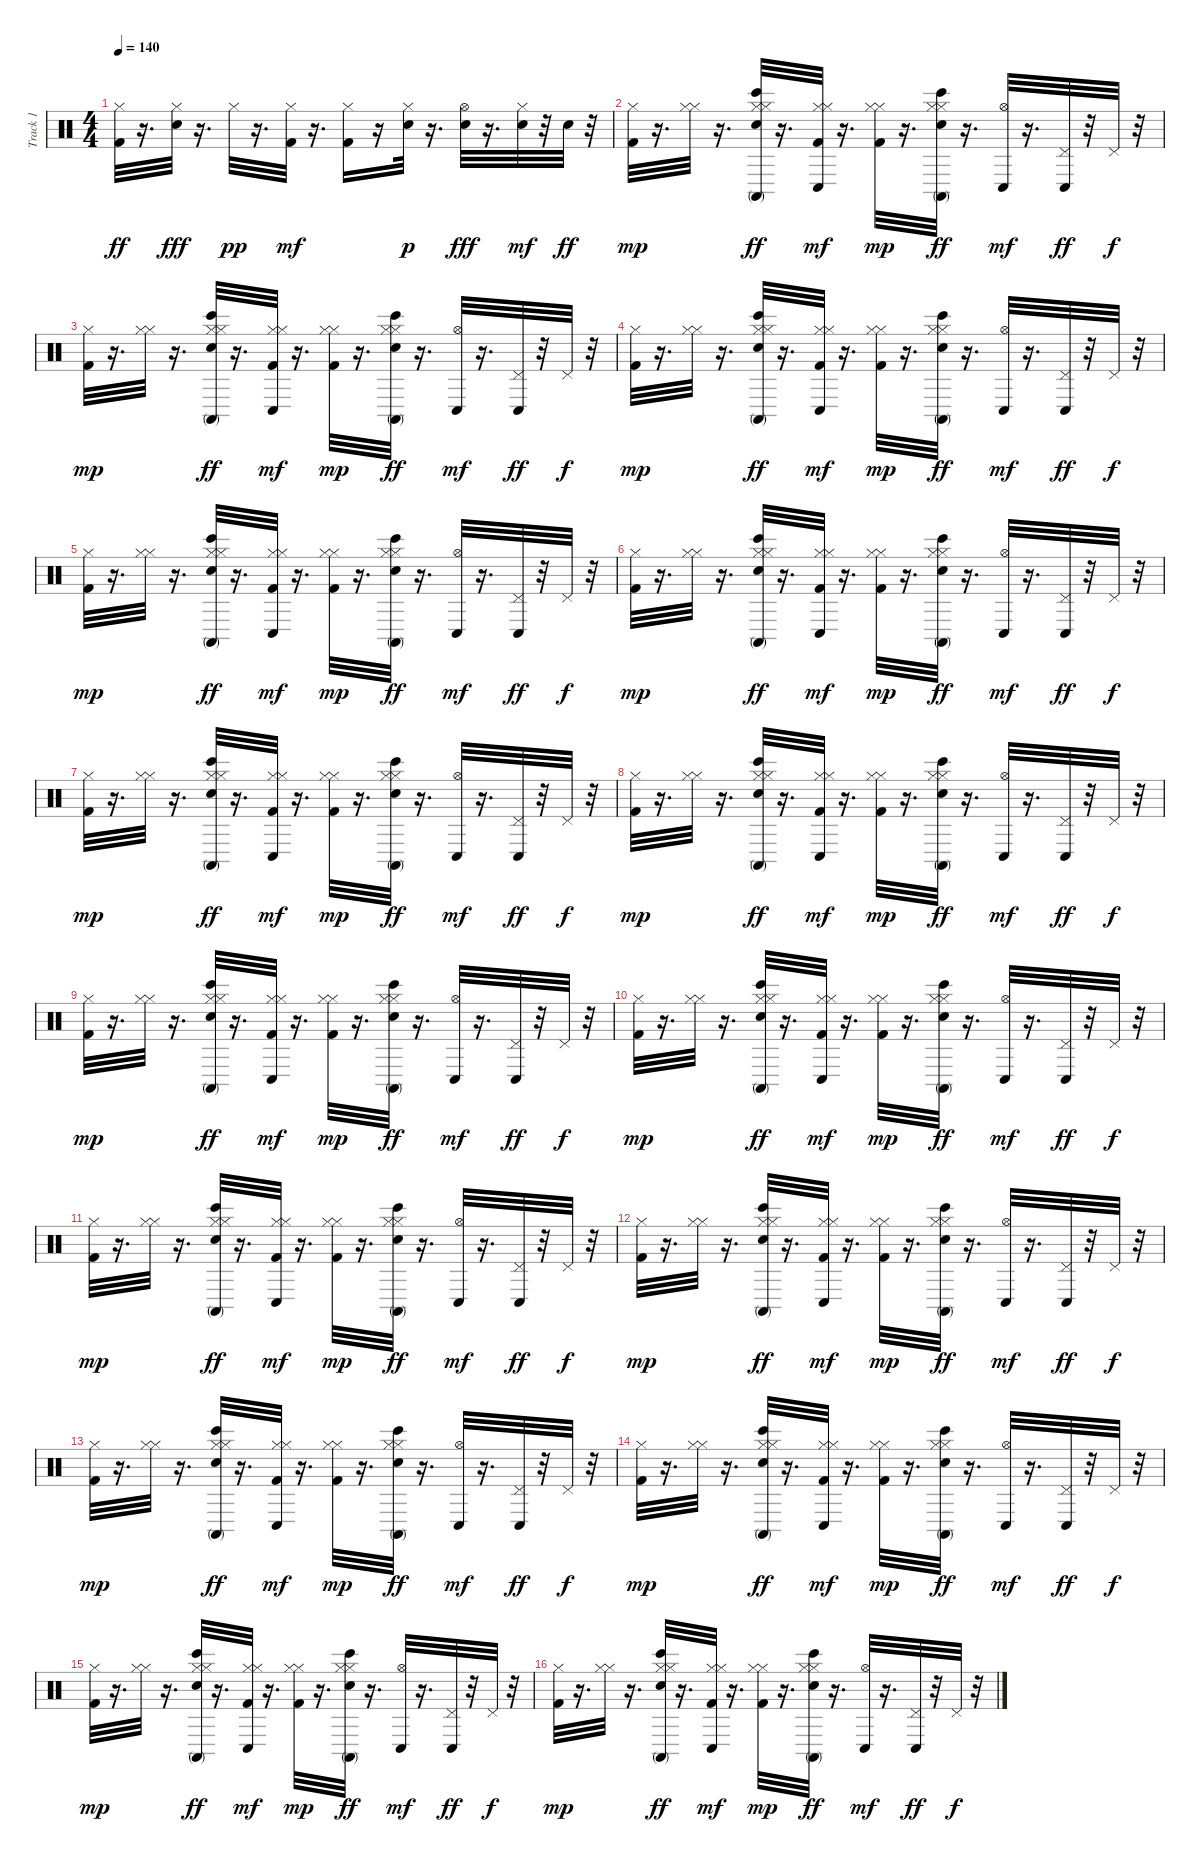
\track ("Track 1" "Track 1") {instrument percussion}
\staff {score}
\articulation defaults
\ts (4 4)
\tempo 140
\clef neutral
\ks c
("Kick (hit) 2" "Hi-Hat (closed)").32{dy ff} r.16{d} ("Hi-Hat (closed)" "Electric Snare (hit)").32{dy fff} r.16{d} "Hi-Hat (closed)".32{dy pp} r.16{d} ("Kick (hit) 2" "Hi-Hat (closed)").32{dy mf} r.16{d} ("Kick (hit) 2" "Hi-Hat (closed)").16 r.16 ("Hi-Hat (closed)" "Electric Snare (hit)").32{dy p} r.16{d} ("Hi-Hat (open)" "Electric Snare (hit)").32{dy fff} r.16{d} ("Hi-Hat (closed)" "Electric Snare (hit)").32{dy mf} r.32 "Electric Snare (hit)".32{dy ff} r.32 |
("Kick (hit) 2" "Hi-Hat (closed)").32{dy mp} r.16{d} ("Hi-Hat (closed)" "Hi-Hat (closed)").32 r.16{d} ("Electric Snare (hit)" "Hi-Hat (closed)" "Hi-Hat (closed)" "Conga high (mute)" "Bongo High (hit)").32{dy ff} r.16{d} ("Kick (hit) 2" "Hi-Hat (closed)" "Hi-Hat (closed)" "Conga low (hit)").32{dy mf} r.16{d} ("Kick (hit) 2" "Hi-Hat (closed)" "Hi-Hat (closed)").32{dy mp} r.16{d} ("Electric Snare (hit)" "Hi-Hat (closed)" "Hi-Hat (closed)" "Conga high (mute)" "Bongo High (hit)").32{dy ff} r.16{d} ("Hi-Hat (open)" "Conga low (hit)").32{dy mf} r.16{d} ("Pedal Hi-Hat (hit)" "Conga low (hit)").32{dy ff} r.32 "Pedal Hi-Hat (hit)".32{dy f} r.32 |
("Kick (hit) 2" "Hi-Hat (closed)").32{dy mp} r.16{d} ("Hi-Hat (closed)" "Hi-Hat (closed)").32 r.16{d} ("Electric Snare (hit)" "Hi-Hat (closed)" "Hi-Hat (closed)" "Conga high (mute)" "Bongo High (hit)").32{dy ff} r.16{d} ("Kick (hit) 2" "Hi-Hat (closed)" "Hi-Hat (closed)" "Conga low (hit)").32{dy mf} r.16{d} ("Kick (hit) 2" "Hi-Hat (closed)" "Hi-Hat (closed)").32{dy mp} r.16{d} ("Electric Snare (hit)" "Hi-Hat (closed)" "Hi-Hat (closed)" "Conga high (mute)" "Bongo High (hit)").32{dy ff} r.16{d} ("Hi-Hat (open)" "Conga low (hit)").32{dy mf} r.16{d} ("Pedal Hi-Hat (hit)" "Conga low (hit)").32{dy ff} r.32 "Pedal Hi-Hat (hit)".32{dy f} r.32 |
("Kick (hit) 2" "Hi-Hat (closed)").32{dy mp} r.16{d} ("Hi-Hat (closed)" "Hi-Hat (closed)").32 r.16{d} ("Electric Snare (hit)" "Hi-Hat (closed)" "Hi-Hat (closed)" "Conga high (mute)" "Bongo High (hit)").32{dy ff} r.16{d} ("Kick (hit) 2" "Hi-Hat (closed)" "Hi-Hat (closed)" "Conga low (hit)").32{dy mf} r.16{d} ("Kick (hit) 2" "Hi-Hat (closed)" "Hi-Hat (closed)").32{dy mp} r.16{d} ("Electric Snare (hit)" "Hi-Hat (closed)" "Hi-Hat (closed)" "Conga high (mute)" "Bongo High (hit)").32{dy ff} r.16{d} ("Hi-Hat (open)" "Conga low (hit)").32{dy mf} r.16{d} ("Pedal Hi-Hat (hit)" "Conga low (hit)").32{dy ff} r.32 "Pedal Hi-Hat (hit)".32{dy f} r.32 |
("Kick (hit) 2" "Hi-Hat (closed)").32{dy mp} r.16{d} ("Hi-Hat (closed)" "Hi-Hat (closed)").32 r.16{d} ("Electric Snare (hit)" "Hi-Hat (closed)" "Hi-Hat (closed)" "Conga high (mute)" "Bongo High (hit)").32{dy ff} r.16{d} ("Kick (hit) 2" "Hi-Hat (closed)" "Hi-Hat (closed)" "Conga low (hit)").32{dy mf} r.16{d} ("Kick (hit) 2" "Hi-Hat (closed)" "Hi-Hat (closed)").32{dy mp} r.16{d} ("Electric Snare (hit)" "Hi-Hat (closed)" "Hi-Hat (closed)" "Conga high (mute)" "Bongo High (hit)").32{dy ff} r.16{d} ("Hi-Hat (open)" "Conga low (hit)").32{dy mf} r.16{d} ("Pedal Hi-Hat (hit)" "Conga low (hit)").32{dy ff} r.32 "Pedal Hi-Hat (hit)".32{dy f} r.32 |
("Kick (hit) 2" "Hi-Hat (closed)").32{dy mp} r.16{d} ("Hi-Hat (closed)" "Hi-Hat (closed)").32 r.16{d} ("Electric Snare (hit)" "Hi-Hat (closed)" "Hi-Hat (closed)" "Conga high (mute)" "Bongo High (hit)").32{dy ff} r.16{d} ("Kick (hit) 2" "Hi-Hat (closed)" "Hi-Hat (closed)" "Conga low (hit)").32{dy mf} r.16{d} ("Kick (hit) 2" "Hi-Hat (closed)" "Hi-Hat (closed)").32{dy mp} r.16{d} ("Electric Snare (hit)" "Hi-Hat (closed)" "Hi-Hat (closed)" "Conga high (mute)" "Bongo High (hit)").32{dy ff} r.16{d} ("Hi-Hat (open)" "Conga low (hit)").32{dy mf} r.16{d} ("Pedal Hi-Hat (hit)" "Conga low (hit)").32{dy ff} r.32 "Pedal Hi-Hat (hit)".32{dy f} r.32 |
("Kick (hit) 2" "Hi-Hat (closed)").32{dy mp} r.16{d} ("Hi-Hat (closed)" "Hi-Hat (closed)").32 r.16{d} ("Electric Snare (hit)" "Hi-Hat (closed)" "Hi-Hat (closed)" "Conga high (mute)" "Bongo High (hit)").32{dy ff} r.16{d} ("Kick (hit) 2" "Hi-Hat (closed)" "Hi-Hat (closed)" "Conga low (hit)").32{dy mf} r.16{d} ("Kick (hit) 2" "Hi-Hat (closed)" "Hi-Hat (closed)").32{dy mp} r.16{d} ("Electric Snare (hit)" "Hi-Hat (closed)" "Hi-Hat (closed)" "Conga high (mute)" "Bongo High (hit)").32{dy ff} r.16{d} ("Hi-Hat (open)" "Conga low (hit)").32{dy mf} r.16{d} ("Pedal Hi-Hat (hit)" "Conga low (hit)").32{dy ff} r.32 "Pedal Hi-Hat (hit)".32{dy f} r.32 |
("Kick (hit) 2" "Hi-Hat (closed)").32{dy mp} r.16{d} ("Hi-Hat (closed)" "Hi-Hat (closed)").32 r.16{d} ("Electric Snare (hit)" "Hi-Hat (closed)" "Hi-Hat (closed)" "Conga high (mute)" "Bongo High (hit)").32{dy ff} r.16{d} ("Kick (hit) 2" "Hi-Hat (closed)" "Hi-Hat (closed)" "Conga low (hit)").32{dy mf} r.16{d} ("Kick (hit) 2" "Hi-Hat (closed)" "Hi-Hat (closed)").32{dy mp} r.16{d} ("Electric Snare (hit)" "Hi-Hat (closed)" "Hi-Hat (closed)" "Conga high (mute)" "Bongo High (hit)").32{dy ff} r.16{d} ("Hi-Hat (open)" "Conga low (hit)").32{dy mf} r.16{d} ("Pedal Hi-Hat (hit)" "Conga low (hit)").32{dy ff} r.32 "Pedal Hi-Hat (hit)".32{dy f} r.32 |
("Kick (hit) 2" "Hi-Hat (closed)").32{dy mp} r.16{d} ("Hi-Hat (closed)" "Hi-Hat (closed)").32 r.16{d} ("Electric Snare (hit)" "Hi-Hat (closed)" "Hi-Hat (closed)" "Conga high (mute)" "Bongo High (hit)").32{dy ff} r.16{d} ("Kick (hit) 2" "Hi-Hat (closed)" "Hi-Hat (closed)" "Conga low (hit)").32{dy mf} r.16{d} ("Kick (hit) 2" "Hi-Hat (closed)" "Hi-Hat (closed)").32{dy mp} r.16{d} ("Electric Snare (hit)" "Hi-Hat (closed)" "Hi-Hat (closed)" "Conga high (mute)" "Bongo High (hit)").32{dy ff} r.16{d} ("Hi-Hat (open)" "Conga low (hit)").32{dy mf} r.16{d} ("Pedal Hi-Hat (hit)" "Conga low (hit)").32{dy ff} r.32 "Pedal Hi-Hat (hit)".32{dy f} r.32 |
("Kick (hit) 2" "Hi-Hat (closed)").32{dy mp} r.16{d} ("Hi-Hat (closed)" "Hi-Hat (closed)").32 r.16{d} ("Electric Snare (hit)" "Hi-Hat (closed)" "Hi-Hat (closed)" "Conga high (mute)" "Bongo High (hit)").32{dy ff} r.16{d} ("Kick (hit) 2" "Hi-Hat (closed)" "Hi-Hat (closed)" "Conga low (hit)").32{dy mf} r.16{d} ("Kick (hit) 2" "Hi-Hat (closed)" "Hi-Hat (closed)").32{dy mp} r.16{d} ("Electric Snare (hit)" "Hi-Hat (closed)" "Hi-Hat (closed)" "Conga high (mute)" "Bongo High (hit)").32{dy ff} r.16{d} ("Hi-Hat (open)" "Conga low (hit)").32{dy mf} r.16{d} ("Pedal Hi-Hat (hit)" "Conga low (hit)").32{dy ff} r.32 "Pedal Hi-Hat (hit)".32{dy f} r.32 |
("Kick (hit) 2" "Hi-Hat (closed)").32{dy mp} r.16{d} ("Hi-Hat (closed)" "Hi-Hat (closed)").32 r.16{d} ("Electric Snare (hit)" "Hi-Hat (closed)" "Hi-Hat (closed)" "Conga high (mute)" "Bongo High (hit)").32{dy ff} r.16{d} ("Kick (hit) 2" "Hi-Hat (closed)" "Hi-Hat (closed)" "Conga low (hit)").32{dy mf} r.16{d} ("Kick (hit) 2" "Hi-Hat (closed)" "Hi-Hat (closed)").32{dy mp} r.16{d} ("Electric Snare (hit)" "Hi-Hat (closed)" "Hi-Hat (closed)" "Conga high (mute)" "Bongo High (hit)").32{dy ff} r.16{d} ("Hi-Hat (open)" "Conga low (hit)").32{dy mf} r.16{d} ("Pedal Hi-Hat (hit)" "Conga low (hit)").32{dy ff} r.32 "Pedal Hi-Hat (hit)".32{dy f} r.32 |
("Kick (hit) 2" "Hi-Hat (closed)").32{dy mp} r.16{d} ("Hi-Hat (closed)" "Hi-Hat (closed)").32 r.16{d} ("Electric Snare (hit)" "Hi-Hat (closed)" "Hi-Hat (closed)" "Conga high (mute)" "Bongo High (hit)").32{dy ff} r.16{d} ("Kick (hit) 2" "Hi-Hat (closed)" "Hi-Hat (closed)" "Conga low (hit)").32{dy mf} r.16{d} ("Kick (hit) 2" "Hi-Hat (closed)" "Hi-Hat (closed)").32{dy mp} r.16{d} ("Electric Snare (hit)" "Hi-Hat (closed)" "Hi-Hat (closed)" "Conga high (mute)" "Bongo High (hit)").32{dy ff} r.16{d} ("Hi-Hat (open)" "Conga low (hit)").32{dy mf} r.16{d} ("Pedal Hi-Hat (hit)" "Conga low (hit)").32{dy ff} r.32 "Pedal Hi-Hat (hit)".32{dy f} r.32 |
("Kick (hit) 2" "Hi-Hat (closed)").32{dy mp} r.16{d} ("Hi-Hat (closed)" "Hi-Hat (closed)").32 r.16{d} ("Electric Snare (hit)" "Hi-Hat (closed)" "Hi-Hat (closed)" "Conga high (mute)" "Bongo High (hit)").32{dy ff} r.16{d} ("Kick (hit) 2" "Hi-Hat (closed)" "Hi-Hat (closed)" "Conga low (hit)").32{dy mf} r.16{d} ("Kick (hit) 2" "Hi-Hat (closed)" "Hi-Hat (closed)").32{dy mp} r.16{d} ("Electric Snare (hit)" "Hi-Hat (closed)" "Hi-Hat (closed)" "Conga high (mute)" "Bongo High (hit)").32{dy ff} r.16{d} ("Hi-Hat (open)" "Conga low (hit)").32{dy mf} r.16{d} ("Pedal Hi-Hat (hit)" "Conga low (hit)").32{dy ff} r.32 "Pedal Hi-Hat (hit)".32{dy f} r.32 |
("Kick (hit) 2" "Hi-Hat (closed)").32{dy mp} r.16{d} ("Hi-Hat (closed)" "Hi-Hat (closed)").32 r.16{d} ("Electric Snare (hit)" "Hi-Hat (closed)" "Hi-Hat (closed)" "Conga high (mute)" "Bongo High (hit)").32{dy ff} r.16{d} ("Kick (hit) 2" "Hi-Hat (closed)" "Hi-Hat (closed)" "Conga low (hit)").32{dy mf} r.16{d} ("Kick (hit) 2" "Hi-Hat (closed)" "Hi-Hat (closed)").32{dy mp} r.16{d} ("Electric Snare (hit)" "Hi-Hat (closed)" "Hi-Hat (closed)" "Conga high (mute)" "Bongo High (hit)").32{dy ff} r.16{d} ("Hi-Hat (open)" "Conga low (hit)").32{dy mf} r.16{d} ("Pedal Hi-Hat (hit)" "Conga low (hit)").32{dy ff} r.32 "Pedal Hi-Hat (hit)".32{dy f} r.32 |
("Kick (hit) 2" "Hi-Hat (closed)").32{dy mp} r.16{d} ("Hi-Hat (closed)" "Hi-Hat (closed)").32 r.16{d} ("Electric Snare (hit)" "Hi-Hat (closed)" "Hi-Hat (closed)" "Conga high (mute)" "Bongo High (hit)").32{dy ff} r.16{d} ("Kick (hit) 2" "Hi-Hat (closed)" "Hi-Hat (closed)" "Conga low (hit)").32{dy mf} r.16{d} ("Kick (hit) 2" "Hi-Hat (closed)" "Hi-Hat (closed)").32{dy mp} r.16{d} ("Electric Snare (hit)" "Hi-Hat (closed)" "Hi-Hat (closed)" "Conga high (mute)" "Bongo High (hit)").32{dy ff} r.16{d} ("Hi-Hat (open)" "Conga low (hit)").32{dy mf} r.16{d} ("Pedal Hi-Hat (hit)" "Conga low (hit)").32{dy ff} r.32 "Pedal Hi-Hat (hit)".32{dy f} r.32 |
("Kick (hit) 2" "Hi-Hat (closed)").32{dy mp} r.16{d} ("Hi-Hat (closed)" "Hi-Hat (closed)").32 r.16{d} ("Electric Snare (hit)" "Hi-Hat (closed)" "Hi-Hat (closed)" "Conga high (mute)" "Bongo High (hit)").32{dy ff} r.16{d} ("Kick (hit) 2" "Hi-Hat (closed)" "Hi-Hat (closed)" "Conga low (hit)").32{dy mf} r.16{d} ("Kick (hit) 2" "Hi-Hat (closed)" "Hi-Hat (closed)").32{dy mp} r.16{d} ("Electric Snare (hit)" "Hi-Hat (closed)" "Hi-Hat (closed)" "Conga high (mute)" "Bongo High (hit)").32{dy ff} r.16{d} ("Hi-Hat (open)" "Conga low (hit)").32{dy mf} r.16{d} ("Pedal Hi-Hat (hit)" "Conga low (hit)").32{dy ff} r.32 "Pedal Hi-Hat (hit)".32{dy f} r.32
